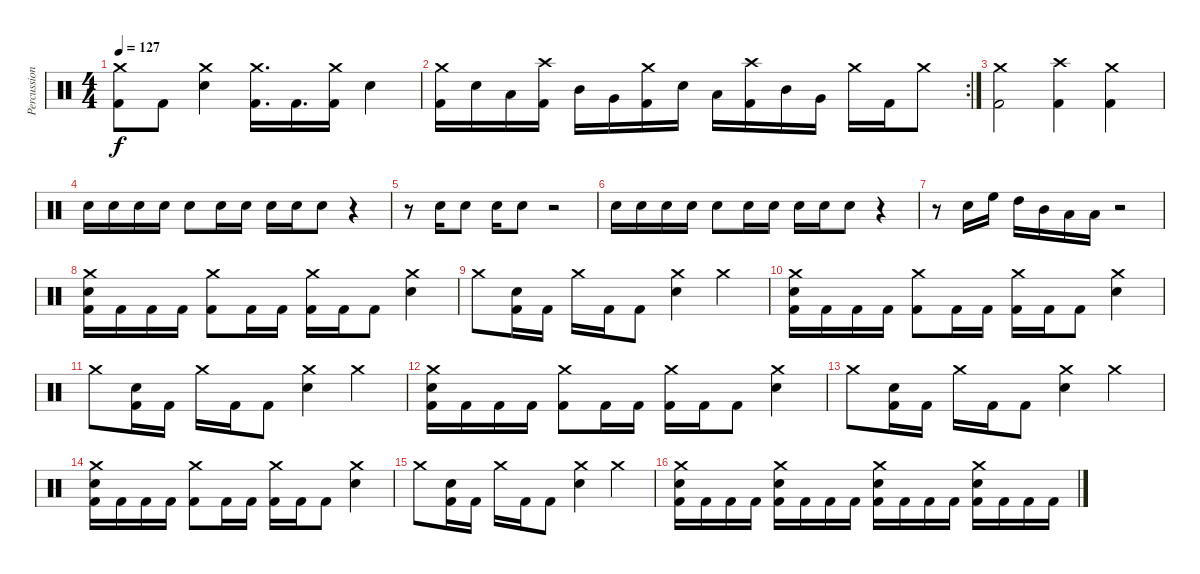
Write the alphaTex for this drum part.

\track ("Percussion" "Percussion") {instrument percussion}
\staff {score}
\articulation defaults
\ts (4 4)
\tempo 127
\clef neutral
\ks c
("Crash medium (hit)" "Kick (hit) 2").8{dy f} "Kick (hit) 2".8 ("Crash medium (hit)" "Electric Snare (hit)").4 ("Crash medium (hit)" "Kick (hit) 2").16{d} "Kick (hit) 2".16{d} ("Crash medium (hit)" "Kick (hit) 2").16 "Electric Snare (hit)".4 |
\rc 2
("Crash medium (hit)" "Kick (hit) 2").16 "Electric Snare (hit)".16 "Low Tom (hit)".16 ("Crash high (hit)" "Kick (hit) 2").16 "Mid Tom (hit)".16 "Very Low Tom (hit)".16 ("Crash medium (hit)" "Kick (hit) 2").16 "Electric Snare (hit)".16 "Low Tom (hit)".16 ("Crash high (hit)" "Kick (hit) 2").16 "Mid Tom (hit)".16 "Very Low Tom (hit)".16 "Crash medium (hit)".16 "Kick (hit) 2".16 "Crash medium (hit)".8 |
("Crash medium (hit)" "Kick (hit) 2").2 ("Crash high (hit)" "Kick (hit) 2").4 ("Crash medium (hit)" "Kick (hit) 2").4 |
"Electric Snare (hit)".16 "Electric Snare (hit)".16 "Electric Snare (hit)".16 "Electric Snare (hit)".16 "Electric Snare (hit)".8 "Electric Snare (hit)".16 "Electric Snare (hit)".16 "Electric Snare (hit)".16 "Electric Snare (hit)".16 "Electric Snare (hit)".8 r.4 |
r.8 "Electric Snare (hit)".16 "Electric Snare (hit)".8 "Electric Snare (hit)".16 "Electric Snare (hit)".8 r.2 |
"Electric Snare (hit)".16 "Electric Snare (hit)".16 "Electric Snare (hit)".16 "Electric Snare (hit)".16 "Electric Snare (hit)".8 "Electric Snare (hit)".16 "Electric Snare (hit)".16 "Electric Snare (hit)".16 "Electric Snare (hit)".16 "Electric Snare (hit)".8 r.4 |
r.8 "Electric Snare (hit)".16 "High Floor Tom (hit)".16 "High Tom (hit)".16 "Mid Tom (hit)".16 "Low Tom (hit)".16 "Low Floor Tom (hit)".16 r.2 |
("Crash medium (hit)" "Electric Snare (hit)" "Kick (hit) 2").16 "Kick (hit) 2".16 "Kick (hit) 2".16 "Kick (hit) 2".16 ("Crash medium (hit)" "Kick (hit) 2").8 "Kick (hit) 2".16 "Kick (hit) 2".16 ("Crash medium (hit)" "Kick (hit) 2").16 "Kick (hit) 2".16 "Kick (hit) 2".8 ("Crash medium (hit)" "Electric Snare (hit)").4 |
"Crash medium (hit)".8 ("Electric Snare (hit)" "Kick (hit) 2").16 "Kick (hit) 2".16 "Crash medium (hit)".16 "Kick (hit) 2".16 "Kick (hit) 2".8 ("Crash medium (hit)" "Electric Snare (hit)").4 "Crash medium (hit)".4 |
("Crash medium (hit)" "Electric Snare (hit)" "Kick (hit) 2").16 "Kick (hit) 2".16 "Kick (hit) 2".16 "Kick (hit) 2".16 ("Crash medium (hit)" "Kick (hit) 2").8 "Kick (hit) 2".16 "Kick (hit) 2".16 ("Crash medium (hit)" "Kick (hit) 2").16 "Kick (hit) 2".16 "Kick (hit) 2".8 ("Crash medium (hit)" "Electric Snare (hit)").4 |
"Crash medium (hit)".8 ("Electric Snare (hit)" "Kick (hit) 2").16 "Kick (hit) 2".16 "Crash medium (hit)".16 "Kick (hit) 2".16 "Kick (hit) 2".8 ("Crash medium (hit)" "Electric Snare (hit)").4 "Crash medium (hit)".4 |
("Crash medium (hit)" "Electric Snare (hit)" "Kick (hit) 2").16 "Kick (hit) 2".16 "Kick (hit) 2".16 "Kick (hit) 2".16 ("Crash medium (hit)" "Kick (hit) 2").8 "Kick (hit) 2".16 "Kick (hit) 2".16 ("Crash medium (hit)" "Kick (hit) 2").16 "Kick (hit) 2".16 "Kick (hit) 2".8 ("Crash medium (hit)" "Electric Snare (hit)").4 |
"Crash medium (hit)".8 ("Electric Snare (hit)" "Kick (hit) 2").16 "Kick (hit) 2".16 "Crash medium (hit)".16 "Kick (hit) 2".16 "Kick (hit) 2".8 ("Crash medium (hit)" "Electric Snare (hit)").4 "Crash medium (hit)".4 |
("Crash medium (hit)" "Electric Snare (hit)" "Kick (hit) 2").16 "Kick (hit) 2".16 "Kick (hit) 2".16 "Kick (hit) 2".16 ("Crash medium (hit)" "Kick (hit) 2").8 "Kick (hit) 2".16 "Kick (hit) 2".16 ("Crash medium (hit)" "Kick (hit) 2").16 "Kick (hit) 2".16 "Kick (hit) 2".8 ("Crash medium (hit)" "Electric Snare (hit)").4 |
"Crash medium (hit)".8 ("Electric Snare (hit)" "Kick (hit) 2").16 "Kick (hit) 2".16 "Crash medium (hit)".16 "Kick (hit) 2".16 "Kick (hit) 2".8 ("Crash medium (hit)" "Electric Snare (hit)").4 "Crash medium (hit)".4 |
("Crash medium (hit)" "Electric Snare (hit)" "Kick (hit) 2").16 "Kick (hit) 2".16 "Kick (hit) 2".16 "Kick (hit) 2".16 ("Crash medium (hit)" "Electric Snare (hit)" "Kick (hit) 2").16 "Kick (hit) 2".16 "Kick (hit) 2".16 "Kick (hit) 2".16 ("Crash medium (hit)" "Electric Snare (hit)" "Kick (hit) 2").16 "Kick (hit) 2".16 "Kick (hit) 2".16 "Kick (hit) 2".16 ("Crash medium (hit)" "Electric Snare (hit)" "Kick (hit) 2").16 "Kick (hit) 2".16 "Kick (hit) 2".16 "Kick (hit) 2".16
